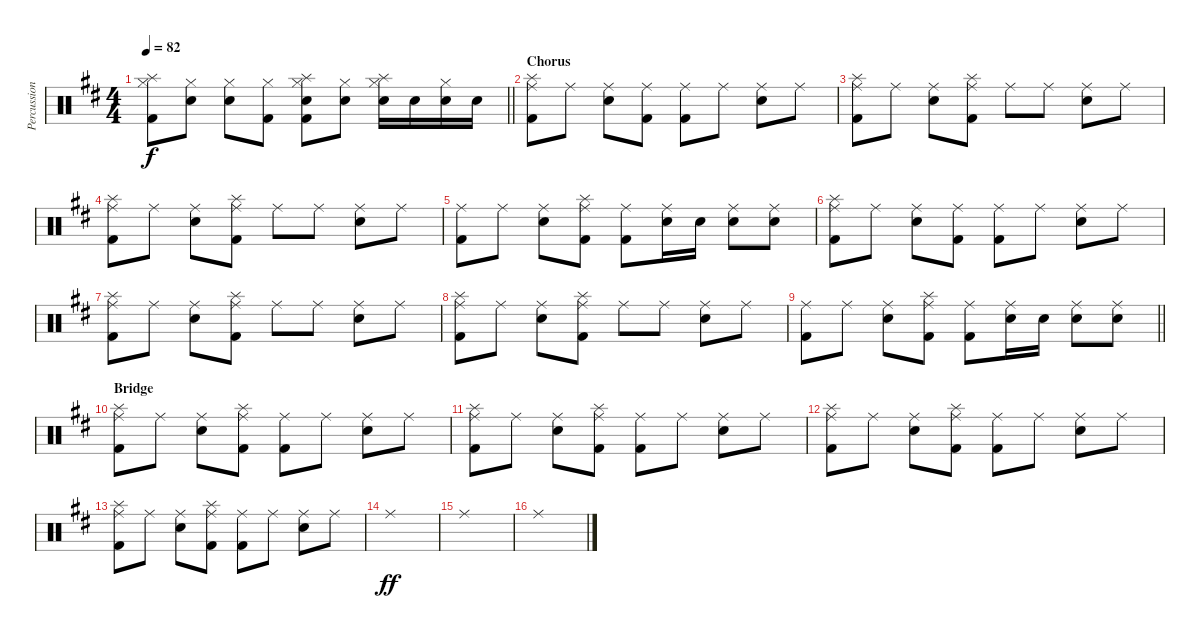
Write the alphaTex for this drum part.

\track ("Percussion" "Percussion") {instrument percussion}
\staff {score}
\articulation defaults
\ts (4 4)
\tempo 82
\clef neutral
\barLineRight lightlight
\ks d
("Splash (hit)" "Hi-Hat (closed)" "Kick (hit) 2").8{dy f} ("Hi-Hat (closed)" "Snare (hit) 2").8 ("Hi-Hat (closed)" "Snare (hit) 2").8 ("Hi-Hat (closed)" "Kick (hit) 2").8 ("Splash (hit)" "Hi-Hat (closed)" "Snare (hit) 2" "Kick (hit) 2").8 ("Hi-Hat (closed)" "Snare (hit) 2").8 ("Splash (hit)" "Hi-Hat (closed)" "Snare (hit) 2").16 "Snare (hit) 2".16 ("Hi-Hat (closed)" "Snare (hit) 2").16 "Snare (hit) 2".16 |
\section ("" "Chorus")
("Splash (hit)" "Ride (middle)" "Kick (hit) 2").8 "Ride (middle)".8 ("Ride (middle)" "Snare (hit) 2").8 ("Ride (middle)" "Kick (hit) 2").8 ("Ride (middle)" "Kick (hit) 2").8 "Ride (middle)".8 ("Ride (middle)" "Snare (hit) 2").8 "Ride (middle)".8 |
("Splash (hit)" "Ride (middle)" "Kick (hit) 2").8 "Ride (middle)".8 ("Ride (middle)" "Snare (hit) 2").8 ("Splash (hit)" "Ride (middle)" "Kick (hit) 2").8 "Ride (middle)".8 "Ride (middle)".8 ("Ride (middle)" "Snare (hit) 2").8 "Ride (middle)".8 |
("Splash (hit)" "Ride (middle)" "Kick (hit) 2").8 "Ride (middle)".8 ("Ride (middle)" "Snare (hit) 2").8 ("Splash (hit)" "Ride (middle)" "Kick (hit) 2").8 "Ride (middle)".8 "Ride (middle)".8 ("Ride (middle)" "Snare (hit) 2").8 "Ride (middle)".8 |
("Ride (middle)" "Kick (hit) 2").8 "Ride (middle)".8 ("Ride (middle)" "Snare (hit) 2").8 ("Splash (hit)" "Ride (middle)" "Kick (hit) 2").8 ("Ride (middle)" "Kick (hit) 2").8 ("Ride (middle)" "Snare (hit) 2").16 "Snare (hit) 2".16 ("Ride (middle)" "Snare (hit) 2").8 ("Ride (middle)" "Snare (hit) 2").8 |
("Splash (hit)" "Ride (middle)" "Kick (hit) 2").8 "Ride (middle)".8 ("Ride (middle)" "Snare (hit) 2").8 ("Ride (middle)" "Kick (hit) 2").8 ("Ride (middle)" "Kick (hit) 2").8 "Ride (middle)".8 ("Ride (middle)" "Snare (hit) 2").8 "Ride (middle)".8 |
("Splash (hit)" "Ride (middle)" "Kick (hit) 2").8 "Ride (middle)".8 ("Ride (middle)" "Snare (hit) 2").8 ("Splash (hit)" "Ride (middle)" "Kick (hit) 2").8 "Ride (middle)".8 "Ride (middle)".8 ("Ride (middle)" "Snare (hit) 2").8 "Ride (middle)".8 |
("Splash (hit)" "Ride (middle)" "Kick (hit) 2").8 "Ride (middle)".8 ("Ride (middle)" "Snare (hit) 2").8 ("Splash (hit)" "Ride (middle)" "Kick (hit) 2").8 "Ride (middle)".8 "Ride (middle)".8 ("Ride (middle)" "Snare (hit) 2").8 "Ride (middle)".8 |
\barLineRight lightlight
("Ride (middle)" "Kick (hit) 2").8 "Ride (middle)".8 ("Ride (middle)" "Snare (hit) 2").8 ("Splash (hit)" "Ride (middle)" "Kick (hit) 2").8 ("Ride (middle)" "Kick (hit) 2").8 ("Ride (middle)" "Snare (hit) 2").16 "Snare (hit) 2".16 ("Ride (middle)" "Snare (hit) 2").8 ("Ride (middle)" "Snare (hit) 2").8 |
\section ("" "Bridge")
("Splash (hit)" "Ride (middle)" "Kick (hit) 2").8 "Ride (middle)".8 ("Ride (middle)" "Snare (hit) 2").8 ("Splash (hit)" "Ride (middle)" "Kick (hit) 2").8 ("Ride (middle)" "Kick (hit) 2").8 "Ride (middle)".8 ("Ride (middle)" "Snare (hit) 2").8 "Ride (middle)".8 |
("Splash (hit)" "Ride (middle)" "Kick (hit) 2").8 "Ride (middle)".8 ("Ride (middle)" "Snare (hit) 2").8 ("Splash (hit)" "Ride (middle)" "Kick (hit) 2").8 ("Ride (middle)" "Kick (hit) 2").8 "Ride (middle)".8 ("Ride (middle)" "Snare (hit) 2").8 "Ride (middle)".8 |
("Splash (hit)" "Ride (middle)" "Kick (hit) 2").8 "Ride (middle)".8 ("Ride (middle)" "Snare (hit) 2").8 ("Splash (hit)" "Ride (middle)" "Kick (hit) 2").8 ("Ride (middle)" "Kick (hit) 2").8 "Ride (middle)".8 ("Ride (middle)" "Snare (hit) 2").8 "Ride (middle)".8 |
("Splash (hit)" "Ride (middle)" "Kick (hit) 2").8 "Ride (middle)".8 ("Ride (middle)" "Snare (hit) 2").8 ("Splash (hit)" "Ride (middle)" "Kick (hit) 2").8 ("Ride (middle)" "Kick (hit) 2").8 "Ride (middle)".8 ("Ride (middle)" "Snare (hit) 2").8 "Ride (middle)".8 |
"Ride (middle)".1{dy ff} |
"Ride (middle)".1 |
"Ride (middle)".1
